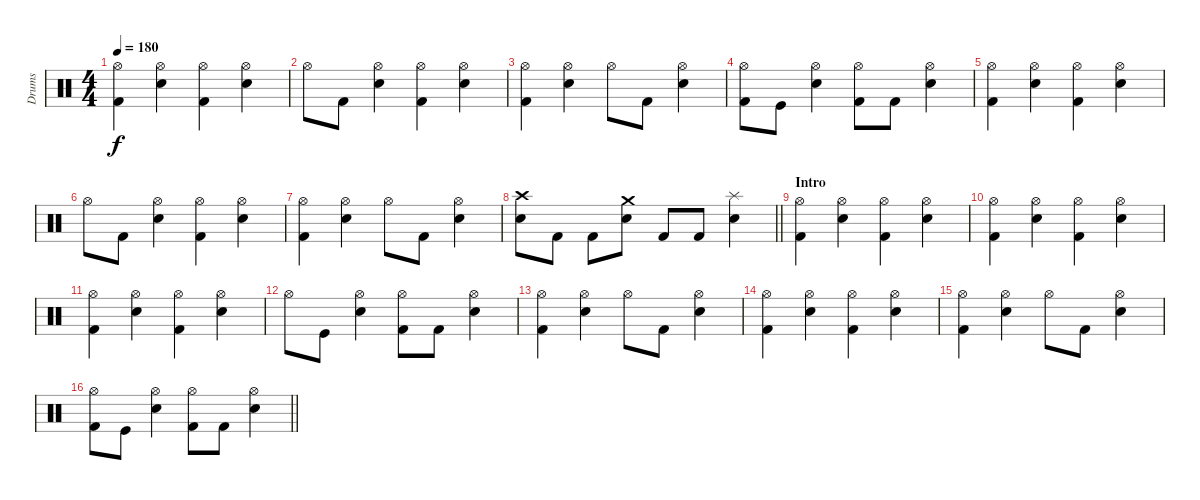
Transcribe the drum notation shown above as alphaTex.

\track ("Drums" "Drums") {instrument percussion}
\staff {score}
\articulation defaults
\ts (4 4)
\tempo 180
\clef neutral
\ks c
("Hi-Hat (open)" "Kick (hit) 2").4{dy f} ("Hi-Hat (open)" "Electric Snare (hit)").4 ("Hi-Hat (open)" "Kick (hit) 2").4 ("Hi-Hat (open)" "Electric Snare (hit)").4 |
"Hi-Hat (open)".8 "Kick (hit) 2".8 ("Hi-Hat (open)" "Electric Snare (hit)").4 ("Hi-Hat (open)" "Kick (hit) 2").4 ("Hi-Hat (open)" "Electric Snare (hit)").4 |
("Hi-Hat (open)" "Kick (hit) 2").4 ("Hi-Hat (open)" "Electric Snare (hit)").4 "Hi-Hat (open)".8 "Kick (hit) 2".8 ("Hi-Hat (open)" "Electric Snare (hit)").4 |
("Hi-Hat (open)" "Kick (hit) 2").8 "Kick (hit)".8 ("Hi-Hat (open)" "Electric Snare (hit)").4 ("Hi-Hat (open)" "Kick (hit) 2").8 "Kick (hit) 2".8 ("Hi-Hat (open)" "Electric Snare (hit)").4 |
("Hi-Hat (open)" "Kick (hit) 2").4 ("Hi-Hat (open)" "Electric Snare (hit)").4 ("Hi-Hat (open)" "Kick (hit) 2").4 ("Hi-Hat (open)" "Electric Snare (hit)").4 |
"Hi-Hat (open)".8 "Kick (hit) 2".8 ("Hi-Hat (open)" "Electric Snare (hit)").4 ("Hi-Hat (open)" "Kick (hit) 2").4 ("Hi-Hat (open)" "Electric Snare (hit)").4 |
("Hi-Hat (open)" "Kick (hit) 2").4 ("Hi-Hat (open)" "Electric Snare (hit)").4 "Hi-Hat (open)".8 "Kick (hit) 2".8 ("Hi-Hat (open)" "Electric Snare (hit)").4 |
\barLineRight lightlight
("Crash high (hit)" "Electric Snare (hit)").8 "Kick (hit) 2".8 "Kick (hit) 2".8 ("Crash medium (hit)" "Electric Snare (hit)").8 "Kick (hit) 2".8 "Kick (hit) 2".8 ("Splash (hit)" "Electric Snare (hit)").4 |
\section ("" "Intro")
("Hi-Hat (open)" "Kick (hit) 2").4 ("Hi-Hat (open)" "Electric Snare (hit)").4 ("Hi-Hat (open)" "Kick (hit) 2").4 ("Hi-Hat (open)" "Electric Snare (hit)").4 |
("Hi-Hat (open)" "Kick (hit) 2").4 ("Hi-Hat (open)" "Electric Snare (hit)").4 ("Hi-Hat (open)" "Kick (hit) 2").4 ("Hi-Hat (open)" "Electric Snare (hit)").4 |
("Hi-Hat (open)" "Kick (hit) 2").4 ("Hi-Hat (open)" "Electric Snare (hit)").4 ("Hi-Hat (open)" "Kick (hit) 2").4 ("Hi-Hat (open)" "Electric Snare (hit)").4 |
"Hi-Hat (open)".8 "Kick (hit)".8 ("Hi-Hat (open)" "Electric Snare (hit)").4 ("Hi-Hat (open)" "Kick (hit) 2").8 "Kick (hit) 2".8 ("Hi-Hat (open)" "Electric Snare (hit)").4 |
("Hi-Hat (open)" "Kick (hit) 2").4 ("Hi-Hat (open)" "Electric Snare (hit)").4 "Hi-Hat (open)".8 "Kick (hit) 2".8 ("Hi-Hat (open)" "Electric Snare (hit)").4 |
("Hi-Hat (open)" "Kick (hit) 2").4 ("Hi-Hat (open)" "Electric Snare (hit)").4 ("Hi-Hat (open)" "Kick (hit) 2").4 ("Hi-Hat (open)" "Electric Snare (hit)").4 |
("Hi-Hat (open)" "Kick (hit) 2").4 ("Hi-Hat (open)" "Electric Snare (hit)").4 "Hi-Hat (open)".8 "Kick (hit) 2".8 ("Hi-Hat (open)" "Electric Snare (hit)").4 |
\barLineRight lightlight
("Hi-Hat (open)" "Kick (hit) 2").8 "Kick (hit)".8 ("Hi-Hat (open)" "Electric Snare (hit)").4 ("Hi-Hat (open)" "Kick (hit) 2").8 "Kick (hit) 2".8 ("Hi-Hat (open)" "Electric Snare (hit)").4
